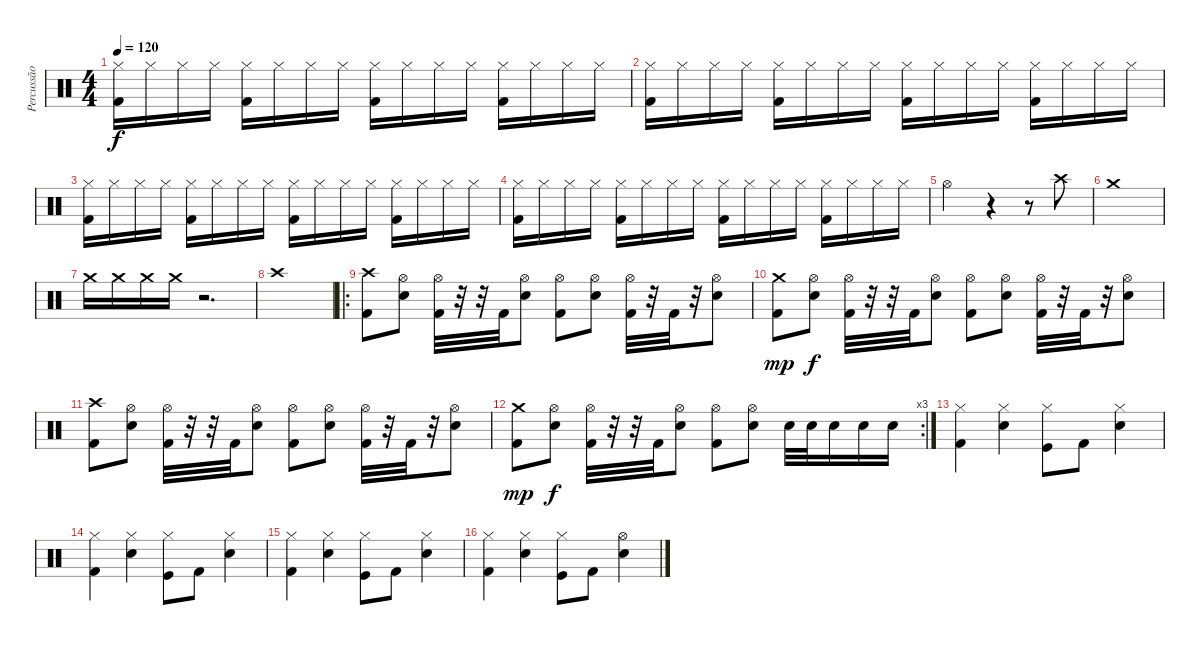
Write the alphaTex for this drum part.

\track ("Percussão" "Percussão") {instrument percussion}
\staff {score}
\articulation defaults
\ts (4 4)
\tempo 120
\clef neutral
\ks c
("Kick (hit) 2" "Hi-Hat (closed)").16{dy f} "Hi-Hat (closed)".16 "Hi-Hat (closed)".16 "Hi-Hat (closed)".16 ("Kick (hit) 2" "Hi-Hat (closed)").16 "Hi-Hat (closed)".16 "Hi-Hat (closed)".16 "Hi-Hat (closed)".16 ("Kick (hit) 2" "Hi-Hat (closed)").16 "Hi-Hat (closed)".16 "Hi-Hat (closed)".16 "Hi-Hat (closed)".16 ("Kick (hit) 2" "Hi-Hat (closed)").16 "Hi-Hat (closed)".16 "Hi-Hat (closed)".16 "Hi-Hat (closed)".16 |
("Kick (hit) 2" "Hi-Hat (closed)").16 "Hi-Hat (closed)".16 "Hi-Hat (closed)".16 "Hi-Hat (closed)".16 ("Kick (hit) 2" "Hi-Hat (closed)").16 "Hi-Hat (closed)".16 "Hi-Hat (closed)".16 "Hi-Hat (closed)".16 ("Kick (hit) 2" "Hi-Hat (closed)").16 "Hi-Hat (closed)".16 "Hi-Hat (closed)".16 "Hi-Hat (closed)".16 ("Kick (hit) 2" "Hi-Hat (closed)").16 "Hi-Hat (closed)".16 "Hi-Hat (closed)".16 "Hi-Hat (closed)".16 |
("Kick (hit) 2" "Hi-Hat (closed)").16 "Hi-Hat (closed)".16 "Hi-Hat (closed)".16 "Hi-Hat (closed)".16 ("Kick (hit) 2" "Hi-Hat (closed)").16 "Hi-Hat (closed)".16 "Hi-Hat (closed)".16 "Hi-Hat (closed)".16 ("Kick (hit) 2" "Hi-Hat (closed)").16 "Hi-Hat (closed)".16 "Hi-Hat (closed)".16 "Hi-Hat (closed)".16 ("Kick (hit) 2" "Hi-Hat (closed)").16 "Hi-Hat (closed)".16 "Hi-Hat (closed)".16 "Hi-Hat (closed)".16 |
("Kick (hit) 2" "Hi-Hat (closed)").16 "Hi-Hat (closed)".16 "Hi-Hat (closed)".16 "Hi-Hat (closed)".16 ("Kick (hit) 2" "Hi-Hat (closed)").16 "Hi-Hat (closed)".16 "Hi-Hat (closed)".16 "Hi-Hat (closed)".16 ("Kick (hit) 2" "Hi-Hat (closed)").16 "Hi-Hat (closed)".16 "Hi-Hat (closed)".16 "Hi-Hat (closed)".16 ("Kick (hit) 2" "Hi-Hat (closed)").16 "Hi-Hat (closed)".16 "Hi-Hat (closed)".16 "Hi-Hat (closed)".16 |
"Hi-Hat (open)".2 r.4 r.8 "Crash high (hit)".8 |
"Crash medium (hit)".1 |
"Crash medium (hit)".16 "Crash medium (hit)".16 "Crash medium (hit)".16 "Crash medium (hit)".16 r.2{d} |
"Crash high (hit)".1 |
\ro
("Crash high (hit)" "Kick (hit) 2").8 ("Hi-Hat (open)" "Electric Snare (hit)").8 ("Hi-Hat (open)" "Kick (hit) 2").32 r.32 r.32 "Kick (hit) 2".32 ("Hi-Hat (open)" "Electric Snare (hit)").8 ("Hi-Hat (open)" "Kick (hit) 2").8 ("Hi-Hat (open)" "Electric Snare (hit)").8 ("Hi-Hat (open)" "Kick (hit) 2").32 r.32 "Kick (hit) 2".32 r.32 ("Hi-Hat (open)" "Electric Snare (hit)").8 |
("Crash medium (hit)" "Kick (hit) 2").8{dy mp} ("Hi-Hat (open)" "Electric Snare (hit)").8{dy f} ("Hi-Hat (open)" "Kick (hit) 2").32 r.32 r.32 "Kick (hit) 2".32 ("Hi-Hat (open)" "Electric Snare (hit)").8 ("Hi-Hat (open)" "Kick (hit) 2").8 ("Hi-Hat (open)" "Electric Snare (hit)").8 ("Hi-Hat (open)" "Kick (hit) 2").32 r.32 "Kick (hit) 2".32 r.32 ("Hi-Hat (open)" "Electric Snare (hit)").8 |
("Crash high (hit)" "Kick (hit) 2").8 ("Hi-Hat (open)" "Electric Snare (hit)").8 ("Hi-Hat (open)" "Kick (hit) 2").32 r.32 r.32 "Kick (hit) 2".32 ("Hi-Hat (open)" "Electric Snare (hit)").8 ("Hi-Hat (open)" "Kick (hit) 2").8 ("Hi-Hat (open)" "Electric Snare (hit)").8 ("Hi-Hat (open)" "Kick (hit) 2").32 r.32 "Kick (hit) 2".32 r.32 ("Hi-Hat (open)" "Electric Snare (hit)").8 |
\rc 3
("Crash medium (hit)" "Kick (hit) 2").8{dy mp} ("Hi-Hat (open)" "Electric Snare (hit)").8{dy f} ("Hi-Hat (open)" "Kick (hit) 2").32 r.32 r.32 "Kick (hit) 2".32 ("Hi-Hat (open)" "Electric Snare (hit)").8 ("Hi-Hat (open)" "Kick (hit) 2").8 ("Hi-Hat (open)" "Electric Snare (hit)").8 "Electric Snare (hit)".32 "Electric Snare (hit)".32 "Electric Snare (hit)".16 "Electric Snare (hit)".16 "Electric Snare (hit)".16 |
("Kick (hit) 2" "Hi-Hat (closed)").4 ("Electric Snare (hit)" "Hi-Hat (closed)").4 ("Kick (hit)" "Hi-Hat (closed)").8 "Kick (hit) 2".8 ("Electric Snare (hit)" "Hi-Hat (closed)").4 |
("Kick (hit) 2" "Hi-Hat (closed)").4 ("Electric Snare (hit)" "Hi-Hat (closed)").4 ("Kick (hit)" "Hi-Hat (closed)").8 "Kick (hit) 2".8 ("Electric Snare (hit)" "Hi-Hat (closed)").4 |
("Kick (hit) 2" "Hi-Hat (closed)").4 ("Electric Snare (hit)" "Hi-Hat (closed)").4 ("Kick (hit)" "Hi-Hat (closed)").8 "Kick (hit) 2".8 ("Electric Snare (hit)" "Hi-Hat (closed)").4 |
("Kick (hit) 2" "Hi-Hat (closed)").4 ("Electric Snare (hit)" "Hi-Hat (closed)").4 ("Kick (hit)" "Hi-Hat (closed)").8 "Kick (hit) 2".8 ("Electric Snare (hit)" "Hi-Hat (open)").4
